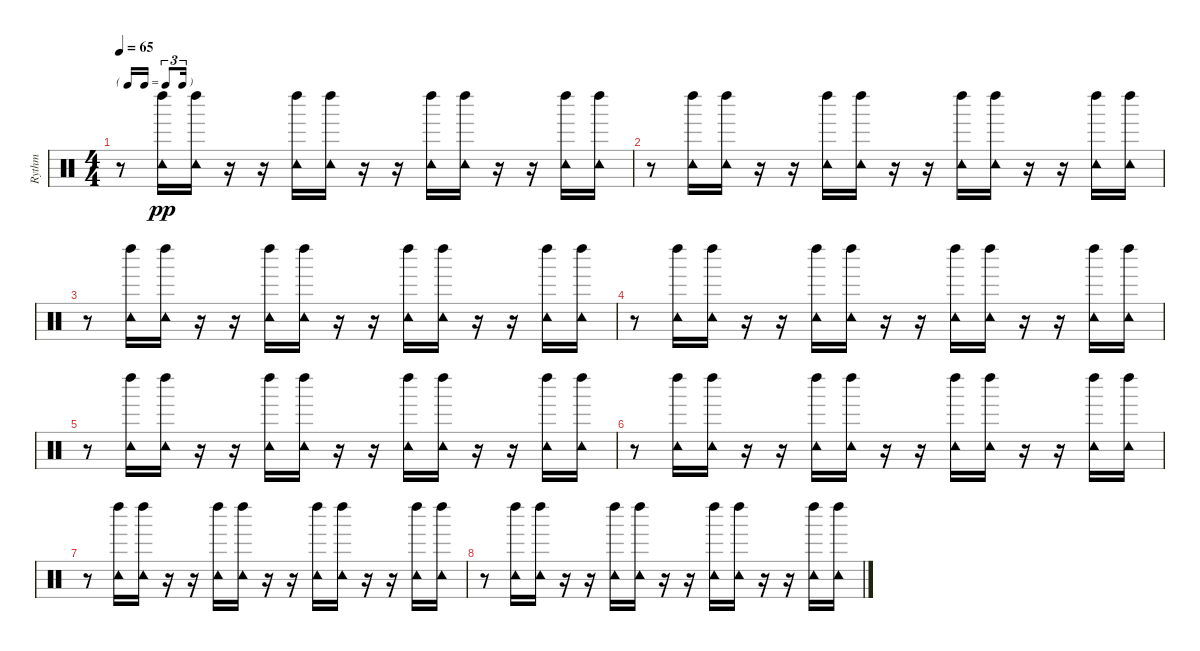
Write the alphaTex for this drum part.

\track ("Rythm" "Rythm") {instrument percussion}
\staff {score}
\articulation defaults
\ts (4 4)
\tf triplet16th
\tempo 65
\clef neutral
\ks c
r.8{dy pp} ("Left Maraca (hit)" "Tambourine (hit)").16 ("Left Maraca (hit)" "Tambourine (hit)").16 r.16 r.16 ("Left Maraca (hit)" "Tambourine (hit)").16 ("Left Maraca (hit)" "Tambourine (hit)").16 r.16 r.16 ("Left Maraca (hit)" "Tambourine (hit)").16 ("Left Maraca (hit)" "Tambourine (hit)").16 r.16 r.16 ("Left Maraca (hit)" "Tambourine (hit)").16 ("Left Maraca (hit)" "Tambourine (hit)").16 |
r.8 ("Left Maraca (hit)" "Tambourine (hit)").16 ("Left Maraca (hit)" "Tambourine (hit)").16 r.16 r.16 ("Left Maraca (hit)" "Tambourine (hit)").16 ("Left Maraca (hit)" "Tambourine (hit)").16 r.16 r.16 ("Left Maraca (hit)" "Tambourine (hit)").16 ("Left Maraca (hit)" "Tambourine (hit)").16 r.16 r.16 ("Left Maraca (hit)" "Tambourine (hit)").16 ("Left Maraca (hit)" "Tambourine (hit)").16 |
r.8 ("Left Maraca (hit)" "Tambourine (hit)").16 ("Left Maraca (hit)" "Tambourine (hit)").16 r.16 r.16 ("Left Maraca (hit)" "Tambourine (hit)").16 ("Left Maraca (hit)" "Tambourine (hit)").16 r.16 r.16 ("Left Maraca (hit)" "Tambourine (hit)").16 ("Left Maraca (hit)" "Tambourine (hit)").16 r.16 r.16 ("Left Maraca (hit)" "Tambourine (hit)").16 ("Left Maraca (hit)" "Tambourine (hit)").16 |
r.8 ("Left Maraca (hit)" "Tambourine (hit)").16 ("Left Maraca (hit)" "Tambourine (hit)").16 r.16 r.16 ("Left Maraca (hit)" "Tambourine (hit)").16 ("Left Maraca (hit)" "Tambourine (hit)").16 r.16 r.16 ("Left Maraca (hit)" "Tambourine (hit)").16 ("Left Maraca (hit)" "Tambourine (hit)").16 r.16 r.16 ("Left Maraca (hit)" "Tambourine (hit)").16 ("Left Maraca (hit)" "Tambourine (hit)").16 |
r.8 ("Left Maraca (hit)" "Tambourine (hit)").16 ("Left Maraca (hit)" "Tambourine (hit)").16 r.16 r.16 ("Left Maraca (hit)" "Tambourine (hit)").16 ("Left Maraca (hit)" "Tambourine (hit)").16 r.16 r.16 ("Left Maraca (hit)" "Tambourine (hit)").16 ("Left Maraca (hit)" "Tambourine (hit)").16 r.16 r.16 ("Left Maraca (hit)" "Tambourine (hit)").16 ("Left Maraca (hit)" "Tambourine (hit)").16 |
r.8 ("Left Maraca (hit)" "Tambourine (hit)").16 ("Left Maraca (hit)" "Tambourine (hit)").16 r.16 r.16 ("Left Maraca (hit)" "Tambourine (hit)").16 ("Left Maraca (hit)" "Tambourine (hit)").16 r.16 r.16 ("Left Maraca (hit)" "Tambourine (hit)").16 ("Left Maraca (hit)" "Tambourine (hit)").16 r.16 r.16 ("Left Maraca (hit)" "Tambourine (hit)").16 ("Left Maraca (hit)" "Tambourine (hit)").16 |
r.8 ("Left Maraca (hit)" "Tambourine (hit)").16 ("Left Maraca (hit)" "Tambourine (hit)").16 r.16 r.16 ("Left Maraca (hit)" "Tambourine (hit)").16 ("Left Maraca (hit)" "Tambourine (hit)").16 r.16 r.16 ("Left Maraca (hit)" "Tambourine (hit)").16 ("Left Maraca (hit)" "Tambourine (hit)").16 r.16 r.16 ("Left Maraca (hit)" "Tambourine (hit)").16 ("Left Maraca (hit)" "Tambourine (hit)").16 |
r.8 ("Left Maraca (hit)" "Tambourine (hit)").16 ("Left Maraca (hit)" "Tambourine (hit)").16 r.16 r.16 ("Left Maraca (hit)" "Tambourine (hit)").16 ("Left Maraca (hit)" "Tambourine (hit)").16 r.16 r.16 ("Left Maraca (hit)" "Tambourine (hit)").16 ("Left Maraca (hit)" "Tambourine (hit)").16 r.16 r.16 ("Left Maraca (hit)" "Tambourine (hit)").16 ("Left Maraca (hit)" "Tambourine (hit)").16
